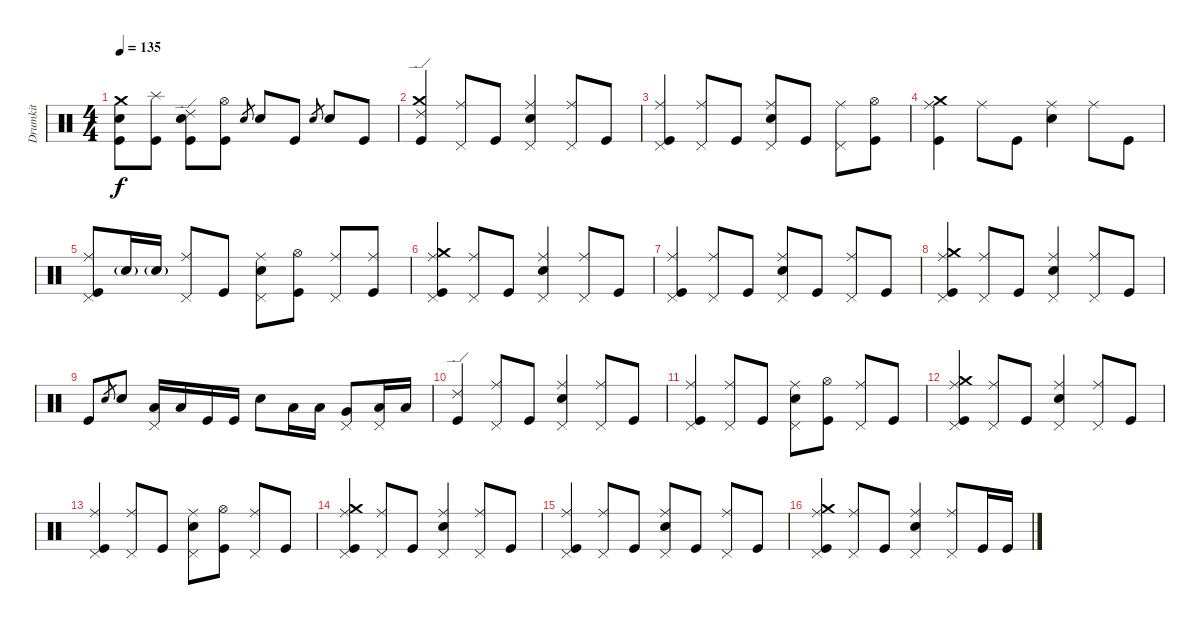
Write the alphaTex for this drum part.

\track ("Drumkit" "Drumkit") {instrument percussion}
\staff {score}
\articulation defaults
\ts (4 4)
\tempo 135
\clef neutral
\ks c
("Kick (hit)" "Crash medium (hit)" "Snare (hit) 2").8{dy f} ("Kick (hit)" "Splash (hit)").8 ("Kick (hit)" "Ride (edge) 2" "Snare (hit) 2").8 ("Hi-Hat (open)" "Kick (hit)").8 "Snare (hit)".8{gr} "Snare (hit) 2".8 "Kick (hit)".8 "Snare (hit)".8{gr} "Snare (hit) 2".8 "Kick (hit)".8 |
("Kick (hit)" "Crash medium (hit)" "Ride (edge) 2").4 ("Ride (middle)" "Pedal Hi-Hat (hit)").8 "Kick (hit)".8 ("Snare (hit) 2" "Ride (middle)" "Pedal Hi-Hat (hit)").4 ("Ride (middle)" "Pedal Hi-Hat (hit)").8 "Kick (hit)".8 |
("Kick (hit)" "Ride (middle)" "Pedal Hi-Hat (hit)").4 ("Ride (middle)" "Pedal Hi-Hat (hit)").8 "Kick (hit)".8 ("Snare (hit) 2" "Ride (middle)" "Pedal Hi-Hat (hit)").8 "Kick (hit)".8 ("Ride (middle)" "Pedal Hi-Hat (hit)").8 ("Kick (hit)" "Hi-Hat (open)").8 |
("Kick (hit)" "Crash medium (hit)" "Ride (middle)").4 "Ride (middle)".8 "Kick (hit)".8 ("Snare (hit) 2" "Ride (middle)").4 "Ride (middle)".8 "Kick (hit)".8 |
("Kick (hit)" "Ride (middle)" "Pedal Hi-Hat (hit)").8 "Snare (hit) 2"{g}.16 "Snare (hit) 2"{g}.16 ("Ride (middle)" "Pedal Hi-Hat (hit)").8 "Kick (hit)".8 ("Snare (hit) 2" "Ride (middle)" "Pedal Hi-Hat (hit)").8 ("Kick (hit)" "Hi-Hat (open)").8 ("Ride (middle)" "Pedal Hi-Hat (hit)").8 ("Kick (hit)" "Ride (middle)").8 |
("Kick (hit)" "Crash medium (hit)" "Ride (middle)" "Pedal Hi-Hat (hit)").4 ("Ride (middle)" "Pedal Hi-Hat (hit)").8 "Kick (hit)".8 ("Snare (hit) 2" "Ride (middle)" "Pedal Hi-Hat (hit)").4 ("Ride (middle)" "Pedal Hi-Hat (hit)").8 "Kick (hit)".8 |
("Kick (hit)" "Ride (middle)" "Pedal Hi-Hat (hit)").4 ("Ride (middle)" "Pedal Hi-Hat (hit)").8 "Kick (hit)".8 ("Snare (hit) 2" "Ride (middle)" "Pedal Hi-Hat (hit)").8 "Kick (hit)".8 ("Ride (middle)" "Pedal Hi-Hat (hit)").8 "Kick (hit)".8 |
("Kick (hit)" "Crash medium (hit)" "Ride (middle)" "Pedal Hi-Hat (hit)").4 ("Ride (middle)" "Pedal Hi-Hat (hit)").8 "Kick (hit)".8 ("Snare (hit) 2" "Ride (middle)" "Pedal Hi-Hat (hit)").4 ("Ride (middle)" "Pedal Hi-Hat (hit)").8 "Kick (hit)".8 |
"Kick (hit)".8 "Snare (hit)".8{gr} "Snare (hit) 2".8 ("Low Tom (hit)" "Pedal Hi-Hat (hit)").16 "Low Tom (hit)".16 "Kick (hit)".16 "Kick (hit)".16 "Snare (hit) 2".8 "Low Tom (hit)".16 "Low Tom (hit)".16 ("Very Low Tom (hit)" "Pedal Hi-Hat (hit)").8 ("Low Floor Tom (hit)" "Pedal Hi-Hat (hit)").16 "Low Floor Tom (hit)".16 |
("Kick (hit)" "Ride (edge) 2").4 ("Ride (middle)" "Pedal Hi-Hat (hit)").8 "Kick (hit)".8 ("Snare (hit) 2" "Ride (middle)" "Pedal Hi-Hat (hit)").4 ("Ride (middle)" "Pedal Hi-Hat (hit)").8 "Kick (hit)".8 |
("Kick (hit)" "Ride (middle)" "Pedal Hi-Hat (hit)").4 ("Ride (middle)" "Pedal Hi-Hat (hit)").8 "Kick (hit)".8 ("Snare (hit) 2" "Ride (middle)" "Pedal Hi-Hat (hit)").8 ("Kick (hit)" "Hi-Hat (open)").8 ("Ride (middle)" "Pedal Hi-Hat (hit)").8 "Kick (hit)".8 |
("Kick (hit)" "Crash medium (hit)" "Ride (middle)" "Pedal Hi-Hat (hit)").4 ("Ride (middle)" "Pedal Hi-Hat (hit)").8 "Kick (hit)".8 ("Snare (hit) 2" "Ride (middle)" "Pedal Hi-Hat (hit)").4 ("Ride (middle)" "Pedal Hi-Hat (hit)").8 "Kick (hit)".8 |
("Kick (hit)" "Ride (middle)" "Pedal Hi-Hat (hit)").4 ("Ride (middle)" "Pedal Hi-Hat (hit)").8 "Kick (hit)".8 ("Snare (hit) 2" "Ride (middle)" "Pedal Hi-Hat (hit)").8 ("Kick (hit)" "Hi-Hat (open)").8 ("Ride (middle)" "Pedal Hi-Hat (hit)").8 "Kick (hit)".8 |
("Kick (hit)" "Crash medium (hit)" "Ride (middle)" "Pedal Hi-Hat (hit)").4 ("Ride (middle)" "Pedal Hi-Hat (hit)").8 "Kick (hit)".8 ("Snare (hit) 2" "Ride (middle)" "Pedal Hi-Hat (hit)").4 ("Ride (middle)" "Pedal Hi-Hat (hit)").8 "Kick (hit)".8 |
("Kick (hit)" "Ride (middle)" "Pedal Hi-Hat (hit)").4 ("Ride (middle)" "Pedal Hi-Hat (hit)").8 "Kick (hit)".8 ("Snare (hit) 2" "Ride (middle)" "Pedal Hi-Hat (hit)").8 "Kick (hit)".8 ("Ride (middle)" "Pedal Hi-Hat (hit)").8 "Kick (hit)".8 |
("Kick (hit)" "Crash medium (hit)" "Ride (middle)" "Pedal Hi-Hat (hit)").4 ("Ride (middle)" "Pedal Hi-Hat (hit)").8 "Kick (hit)".8 ("Snare (hit) 2" "Ride (middle)" "Pedal Hi-Hat (hit)").4 ("Ride (middle)" "Pedal Hi-Hat (hit)").8 "Kick (hit)".16 "Kick (hit)".16
